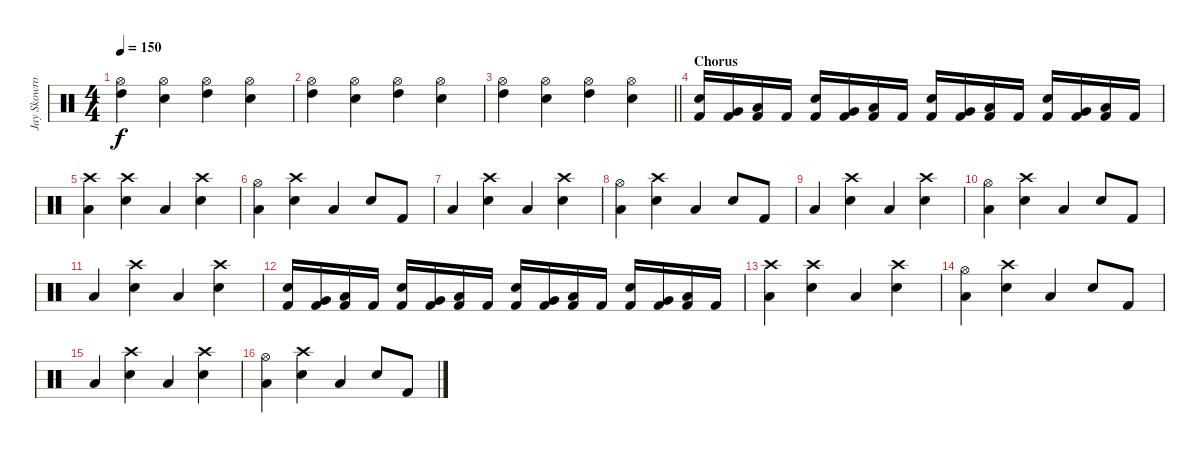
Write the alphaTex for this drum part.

\track ("Jay Skowronek (Drums)" "Jay Skowro") {instrument percussion}
\staff {score}
\articulation defaults
\ts (4 4)
\tempo 150
\clef neutral
\ks c
("High Tom (hit)" "Hi-Hat (open)").4{dy f} ("Electric Snare (hit)" "Hi-Hat (open)").4 ("High Tom (hit)" "Hi-Hat (open)").4 ("Electric Snare (hit)" "Hi-Hat (open)").4 |
("High Tom (hit)" "Hi-Hat (open)").4 ("Electric Snare (hit)" "Hi-Hat (open)").4 ("High Tom (hit)" "Hi-Hat (open)").4 ("Electric Snare (hit)" "Hi-Hat (open)").4 |
\barLineRight lightlight
("High Tom (hit)" "Hi-Hat (open)").4 ("Electric Snare (hit)" "Hi-Hat (open)").4 ("High Tom (hit)" "Hi-Hat (open)").4 ("Electric Snare (hit)" "Hi-Hat (open)").4 |
\section ("" "Chorus")
("Electric Snare (hit)" "Kick (hit) 2").16 ("Very Low Tom (hit)" "Kick (hit) 2").16 ("Low Floor Tom (hit)" "Kick (hit) 2").16 "Kick (hit) 2".16 ("Electric Snare (hit)" "Kick (hit) 2").16 ("Very Low Tom (hit)" "Kick (hit) 2").16 ("Low Floor Tom (hit)" "Kick (hit) 2").16 "Kick (hit) 2".16 ("Electric Snare (hit)" "Kick (hit) 2").16 ("Very Low Tom (hit)" "Kick (hit) 2").16 ("Low Floor Tom (hit)" "Kick (hit) 2").16 "Kick (hit) 2".16 ("Electric Snare (hit)" "Kick (hit) 2").16 ("Very Low Tom (hit)" "Kick (hit) 2").16 ("Low Floor Tom (hit)" "Kick (hit) 2").16 "Kick (hit) 2".16 |
("Low Floor Tom (hit)" "Crash high (hit)").4 ("Electric Snare (hit)" "Crash high (hit)").4 "Low Floor Tom (hit)".4 ("Electric Snare (hit)" "Crash high (hit)").4 |
("Low Floor Tom (hit)" "Hi-Hat (open)").4 ("Electric Snare (hit)" "Crash high (hit)").4 "Low Floor Tom (hit)".4 "Electric Snare (hit)".8 "Kick (hit) 2".8 |
"Low Floor Tom (hit)".4 ("Electric Snare (hit)" "Crash high (hit)").4 "Low Floor Tom (hit)".4 ("Electric Snare (hit)" "Crash high (hit)").4 |
("Low Floor Tom (hit)" "Hi-Hat (open)").4 ("Electric Snare (hit)" "Crash high (hit)").4 "Low Floor Tom (hit)".4 "Electric Snare (hit)".8 "Kick (hit) 2".8 |
"Low Floor Tom (hit)".4 ("Electric Snare (hit)" "Crash high (hit)").4 "Low Floor Tom (hit)".4 ("Electric Snare (hit)" "Crash high (hit)").4 |
("Low Floor Tom (hit)" "Hi-Hat (open)").4 ("Electric Snare (hit)" "Crash high (hit)").4 "Low Floor Tom (hit)".4 "Electric Snare (hit)".8 "Kick (hit) 2".8 |
"Low Floor Tom (hit)".4 ("Electric Snare (hit)" "Crash high (hit)").4 "Low Floor Tom (hit)".4 ("Electric Snare (hit)" "Crash high (hit)").4 |
("Electric Snare (hit)" "Kick (hit) 2").16 ("Very Low Tom (hit)" "Kick (hit) 2").16 ("Low Floor Tom (hit)" "Kick (hit) 2").16 "Kick (hit) 2".16 ("Electric Snare (hit)" "Kick (hit) 2").16 ("Very Low Tom (hit)" "Kick (hit) 2").16 ("Low Floor Tom (hit)" "Kick (hit) 2").16 "Kick (hit) 2".16 ("Electric Snare (hit)" "Kick (hit) 2").16 ("Very Low Tom (hit)" "Kick (hit) 2").16 ("Low Floor Tom (hit)" "Kick (hit) 2").16 "Kick (hit) 2".16 ("Electric Snare (hit)" "Kick (hit) 2").16 ("Very Low Tom (hit)" "Kick (hit) 2").16 ("Low Floor Tom (hit)" "Kick (hit) 2").16 "Kick (hit) 2".16 |
("Low Floor Tom (hit)" "Crash high (hit)").4 ("Electric Snare (hit)" "Crash high (hit)").4 "Low Floor Tom (hit)".4 ("Electric Snare (hit)" "Crash high (hit)").4 |
("Low Floor Tom (hit)" "Hi-Hat (open)").4 ("Electric Snare (hit)" "Crash high (hit)").4 "Low Floor Tom (hit)".4 "Electric Snare (hit)".8 "Kick (hit) 2".8 |
"Low Floor Tom (hit)".4 ("Electric Snare (hit)" "Crash high (hit)").4 "Low Floor Tom (hit)".4 ("Electric Snare (hit)" "Crash high (hit)").4 |
("Low Floor Tom (hit)" "Hi-Hat (open)").4 ("Electric Snare (hit)" "Crash high (hit)").4 "Low Floor Tom (hit)".4 "Electric Snare (hit)".8 "Kick (hit) 2".8
